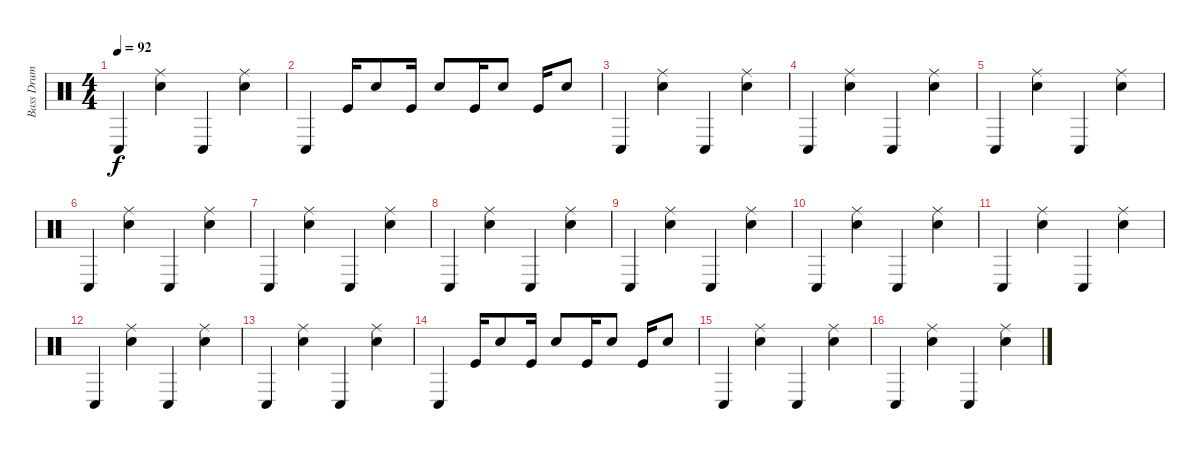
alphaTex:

\track ("Bass Drum" "Bass Drum") {instrument percussion}
\staff {score}
\articulation defaults
\ts (4 4)
\tempo 92
\clef neutral
\ks c "Conga low (hit)".4{dy f}
("Snare (hit) 2" "Ride (middle)").4 "Conga low (hit)".4 ("Snare (hit) 2" "Ride (middle)").4 |
"Conga low (hit)".4 "Kick (hit)".16 "Snare (hit) 2".8 "Kick (hit)".16 "Snare (hit) 2".8 "Kick (hit)".16 "Snare (hit) 2".8 "Kick (hit)".16 "Snare (hit) 2".8 |
"Conga low (hit)".4 ("Snare (hit) 2" "Ride (middle)").4 "Conga low (hit)".4 ("Snare (hit) 2" "Ride (middle)").4 |
"Conga low (hit)".4 ("Snare (hit) 2" "Ride (middle)").4 "Conga low (hit)".4 ("Snare (hit) 2" "Ride (middle)").4 |
"Conga low (hit)".4 ("Snare (hit) 2" "Ride (middle)").4 "Conga low (hit)".4 ("Snare (hit) 2" "Ride (middle)").4 |
"Conga low (hit)".4 ("Snare (hit) 2" "Ride (middle)").4 "Conga low (hit)".4 ("Snare (hit) 2" "Ride (middle)").4 |
"Conga low (hit)".4 ("Snare (hit) 2" "Ride (middle)").4 "Conga low (hit)".4 ("Snare (hit) 2" "Ride (middle)").4 |
"Conga low (hit)".4 ("Snare (hit) 2" "Ride (middle)").4 "Conga low (hit)".4 ("Snare (hit) 2" "Ride (middle)").4 |
"Conga low (hit)".4 ("Snare (hit) 2" "Ride (middle)").4 "Conga low (hit)".4 ("Snare (hit) 2" "Ride (middle)").4 |
"Conga low (hit)".4 ("Snare (hit) 2" "Ride (middle)").4 "Conga low (hit)".4 ("Snare (hit) 2" "Ride (middle)").4 |
"Conga low (hit)".4 ("Snare (hit) 2" "Ride (middle)").4 "Conga low (hit)".4 ("Snare (hit) 2" "Ride (middle)").4 |
"Conga low (hit)".4 ("Snare (hit) 2" "Ride (middle)").4 "Conga low (hit)".4 ("Snare (hit) 2" "Ride (middle)").4 |
"Conga low (hit)".4 ("Snare (hit) 2" "Ride (middle)").4 "Conga low (hit)".4 ("Snare (hit) 2" "Ride (middle)").4 |
"Conga low (hit)".4 "Kick (hit)".16 "Snare (hit) 2".8 "Kick (hit)".16 "Snare (hit) 2".8 "Kick (hit)".16 "Snare (hit) 2".8 "Kick (hit)".16 "Snare (hit) 2".8 |
"Conga low (hit)".4 ("Snare (hit) 2" "Ride (middle)").4 "Conga low (hit)".4 ("Snare (hit) 2" "Ride (middle)").4 |
"Conga low (hit)".4 ("Snare (hit) 2" "Ride (middle)").4 "Conga low (hit)".4 ("Snare (hit) 2" "Ride (middle)").4
